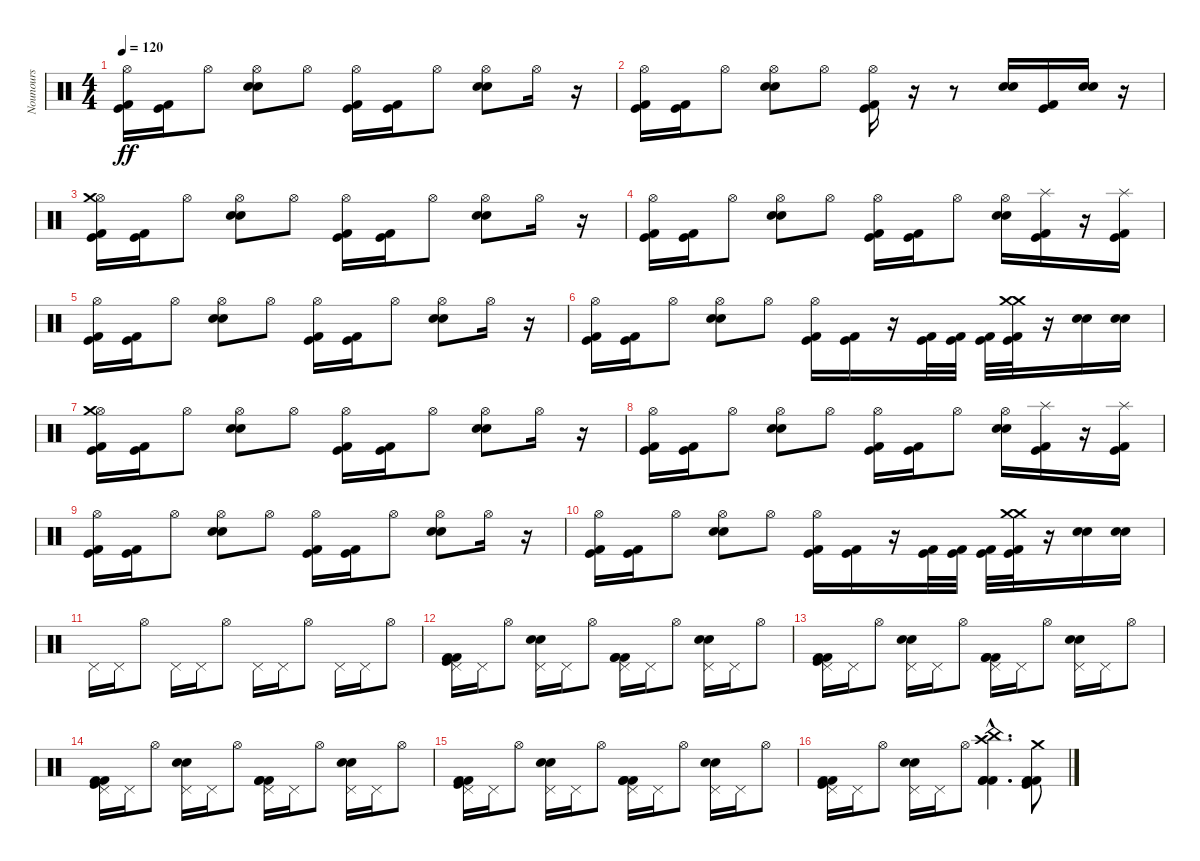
\track ("Nounours" "Nounours") {instrument percussion}
\staff {score}
\articulation defaults
\ts (4 4)
\tempo 120
\clef neutral
\ks c
("Hi-Hat (open)" "Kick (hit)" "Kick (hit) 2").16{dy ff} ("Kick (hit) 2" "Kick (hit)").16 "Hi-Hat (open)".8 ("Hi-Hat (open)" "Electric Snare (hit)" "Electric Snare (hit)").8 "Hi-Hat (open)".8 ("Hi-Hat (open)" "Kick (hit)" "Kick (hit) 2").16 ("Kick (hit) 2" "Kick (hit)").16 "Hi-Hat (open)".8 ("Hi-Hat (open)" "Electric Snare (hit)" "Electric Snare (hit)").8 "Hi-Hat (open)".16 r.16 |
("Hi-Hat (open)" "Kick (hit)" "Kick (hit) 2").16 ("Kick (hit) 2" "Kick (hit)").16 "Hi-Hat (open)".8 ("Hi-Hat (open)" "Electric Snare (hit)" "Electric Snare (hit)").8 "Hi-Hat (open)".8 ("Hi-Hat (open)" "Kick (hit)" "Kick (hit) 2").16 r.16 r.8 ("Electric Snare (hit)" "Electric Snare (hit)").16 ("Kick (hit) 2" "Kick (hit)").16 ("Electric Snare (hit)" "Electric Snare (hit)").16 r.16 |
("Hi-Hat (open)" "Crash medium (hit)" "Kick (hit)" "Kick (hit) 2").16 ("Kick (hit) 2" "Kick (hit)").16 "Hi-Hat (open)".8 ("Hi-Hat (open)" "Electric Snare (hit)" "Electric Snare (hit)").8 "Hi-Hat (open)".8 ("Hi-Hat (open)" "Kick (hit)" "Kick (hit) 2").16 ("Kick (hit) 2" "Kick (hit)").16 "Hi-Hat (open)".8 ("Hi-Hat (open)" "Electric Snare (hit)" "Electric Snare (hit)").8 "Hi-Hat (open)".16 r.16 |
("Hi-Hat (open)" "Kick (hit)" "Kick (hit) 2").16 ("Kick (hit) 2" "Kick (hit)").16 "Hi-Hat (open)".8 ("Hi-Hat (open)" "Electric Snare (hit)" "Electric Snare (hit)").8 "Hi-Hat (open)".8 ("Hi-Hat (open)" "Kick (hit)" "Kick (hit) 2").16 ("Kick (hit) 2" "Kick (hit)").16 "Hi-Hat (open)".8 ("Hi-Hat (open)" "Electric Snare (hit)" "Electric Snare (hit)").16 ("Splash (hit)" "Kick (hit) 2" "Kick (hit)").16 r.16 ("Splash (hit)" "Kick (hit) 2" "Kick (hit)").16 |
("Hi-Hat (open)" "Kick (hit)" "Kick (hit) 2").16 ("Kick (hit) 2" "Kick (hit)").16 "Hi-Hat (open)".8 ("Hi-Hat (open)" "Electric Snare (hit)" "Electric Snare (hit)").8 "Hi-Hat (open)".8 ("Hi-Hat (open)" "Kick (hit)" "Kick (hit) 2").16 ("Kick (hit) 2" "Kick (hit)").16 "Hi-Hat (open)".8 ("Hi-Hat (open)" "Electric Snare (hit)" "Electric Snare (hit)").8 "Hi-Hat (open)".16 r.16 |
("Hi-Hat (open)" "Kick (hit)" "Kick (hit) 2").16 ("Kick (hit) 2" "Kick (hit)").16 "Hi-Hat (open)".8 ("Hi-Hat (open)" "Electric Snare (hit)" "Electric Snare (hit)").8 "Hi-Hat (open)".8 ("Hi-Hat (open)" "Kick (hit)" "Kick (hit) 2").16 ("Kick (hit) 2" "Kick (hit)").16 r.16 ("Kick (hit) 2" "Kick (hit)").32 ("Kick (hit) 2" "Kick (hit)").32 ("Kick (hit) 2" "Kick (hit)").32 ("Crash medium (hit)" "Crash medium (hit)" "Kick (hit) 2" "Kick (hit)").32 r.16 ("Electric Snare (hit)" "Electric Snare (hit)").16 ("Electric Snare (hit)" "Electric Snare (hit)").16 |
("Hi-Hat (open)" "Crash medium (hit)" "Kick (hit)" "Kick (hit) 2").16 ("Kick (hit) 2" "Kick (hit)").16 "Hi-Hat (open)".8 ("Hi-Hat (open)" "Electric Snare (hit)" "Electric Snare (hit)").8 "Hi-Hat (open)".8 ("Hi-Hat (open)" "Kick (hit)" "Kick (hit) 2").16 ("Kick (hit) 2" "Kick (hit)").16 "Hi-Hat (open)".8 ("Hi-Hat (open)" "Electric Snare (hit)" "Electric Snare (hit)").8 "Hi-Hat (open)".16 r.16 |
("Hi-Hat (open)" "Kick (hit)" "Kick (hit) 2").16 ("Kick (hit) 2" "Kick (hit)").16 "Hi-Hat (open)".8 ("Hi-Hat (open)" "Electric Snare (hit)" "Electric Snare (hit)").8 "Hi-Hat (open)".8 ("Hi-Hat (open)" "Kick (hit)" "Kick (hit) 2").16 ("Kick (hit) 2" "Kick (hit)").16 "Hi-Hat (open)".8 ("Hi-Hat (open)" "Electric Snare (hit)" "Electric Snare (hit)").16 ("Splash (hit)" "Kick (hit) 2" "Kick (hit)").16 r.16 ("Splash (hit)" "Kick (hit) 2" "Kick (hit)").16 |
("Hi-Hat (open)" "Kick (hit)" "Kick (hit) 2").16 ("Kick (hit) 2" "Kick (hit)").16 "Hi-Hat (open)".8 ("Hi-Hat (open)" "Electric Snare (hit)" "Electric Snare (hit)").8 "Hi-Hat (open)".8 ("Hi-Hat (open)" "Kick (hit)" "Kick (hit) 2").16 ("Kick (hit) 2" "Kick (hit)").16 "Hi-Hat (open)".8 ("Hi-Hat (open)" "Electric Snare (hit)" "Electric Snare (hit)").8 "Hi-Hat (open)".16 r.16 |
("Hi-Hat (open)" "Kick (hit)" "Kick (hit) 2").16 ("Kick (hit) 2" "Kick (hit)").16 "Hi-Hat (open)".8 ("Hi-Hat (open)" "Electric Snare (hit)" "Electric Snare (hit)").8 "Hi-Hat (open)".8 ("Hi-Hat (open)" "Kick (hit)" "Kick (hit) 2").16 ("Kick (hit) 2" "Kick (hit)").16 r.16 ("Kick (hit) 2" "Kick (hit)").32 ("Kick (hit) 2" "Kick (hit)").32 ("Kick (hit) 2" "Kick (hit)").32 ("Crash medium (hit)" "Crash medium (hit)" "Kick (hit) 2" "Kick (hit)").32 r.16 ("Electric Snare (hit)" "Electric Snare (hit)").16 ("Electric Snare (hit)" "Electric Snare (hit)").16 |
"Pedal Hi-Hat (hit)".16 "Pedal Hi-Hat (hit)".16 "Hi-Hat (open)".8 "Pedal Hi-Hat (hit)".16 "Pedal Hi-Hat (hit)".16 "Hi-Hat (open)".8 "Pedal Hi-Hat (hit)".16 "Pedal Hi-Hat (hit)".16 "Hi-Hat (open)".8 "Pedal Hi-Hat (hit)".16 "Pedal Hi-Hat (hit)".16 "Hi-Hat (open)".8 |
("Pedal Hi-Hat (hit)" "Kick (hit) 2" "Kick (hit) 2" "Kick (hit)").16 "Pedal Hi-Hat (hit)".16 "Hi-Hat (open)".8 ("Pedal Hi-Hat (hit)" "Electric Snare (hit)" "Electric Snare (hit)").16 "Pedal Hi-Hat (hit)".16 "Hi-Hat (open)".8 ("Pedal Hi-Hat (hit)" "Kick (hit) 2" "Kick (hit) 2" "Kick (hit) 2").16 "Pedal Hi-Hat (hit)".16 "Hi-Hat (open)".8 ("Pedal Hi-Hat (hit)" "Electric Snare (hit)" "Electric Snare (hit)").16 "Pedal Hi-Hat (hit)".16 "Hi-Hat (open)".8 |
("Pedal Hi-Hat (hit)" "Kick (hit) 2" "Kick (hit) 2" "Kick (hit)").16 "Pedal Hi-Hat (hit)".16 "Hi-Hat (open)".8 ("Pedal Hi-Hat (hit)" "Electric Snare (hit)" "Electric Snare (hit)").16 "Pedal Hi-Hat (hit)".16 "Hi-Hat (open)".8 ("Pedal Hi-Hat (hit)" "Kick (hit) 2" "Kick (hit) 2" "Kick (hit) 2").16 "Pedal Hi-Hat (hit)".16 "Hi-Hat (open)".8 ("Pedal Hi-Hat (hit)" "Electric Snare (hit)" "Electric Snare (hit)").16 "Pedal Hi-Hat (hit)".16 "Hi-Hat (open)".8 |
("Pedal Hi-Hat (hit)" "Kick (hit) 2" "Kick (hit) 2" "Kick (hit)").16 "Pedal Hi-Hat (hit)".16 "Hi-Hat (open)".8 ("Pedal Hi-Hat (hit)" "Electric Snare (hit)" "Electric Snare (hit)").16 "Pedal Hi-Hat (hit)".16 "Hi-Hat (open)".8 ("Pedal Hi-Hat (hit)" "Kick (hit) 2" "Kick (hit) 2" "Kick (hit) 2").16 "Pedal Hi-Hat (hit)".16 "Hi-Hat (open)".8 ("Pedal Hi-Hat (hit)" "Electric Snare (hit)" "Electric Snare (hit)").16 "Pedal Hi-Hat (hit)".16 "Hi-Hat (open)".8 |
("Pedal Hi-Hat (hit)" "Kick (hit) 2" "Kick (hit) 2" "Kick (hit)").16 "Pedal Hi-Hat (hit)".16 "Hi-Hat (open)".8 ("Pedal Hi-Hat (hit)" "Electric Snare (hit)" "Electric Snare (hit)").16 "Pedal Hi-Hat (hit)".16 "Hi-Hat (open)".8 ("Pedal Hi-Hat (hit)" "Kick (hit) 2" "Kick (hit) 2" "Kick (hit) 2").16 "Pedal Hi-Hat (hit)".16 "Hi-Hat (open)".8 ("Pedal Hi-Hat (hit)" "Electric Snare (hit)" "Electric Snare (hit)").16 "Pedal Hi-Hat (hit)".16 "Hi-Hat (open)".8 |
("Pedal Hi-Hat (hit)" "Kick (hit) 2" "Kick (hit) 2" "Kick (hit)").16 "Pedal Hi-Hat (hit)".16 "Hi-Hat (open)".8 ("Pedal Hi-Hat (hit)" "Electric Snare (hit)" "Electric Snare (hit)").16 "Pedal Hi-Hat (hit)".16 "Hi-Hat (open)".8 ("China (hit)"{hac} "Crash high (hit)"{hac} "Kick (hit) 2"{hac} "Kick (hit) 2"{hac} "Kick (hit) 2"{hac}).4{d} ("Crash medium (hit)" "Kick (hit) 2" "Kick (hit) 2" "Kick (hit)").8
